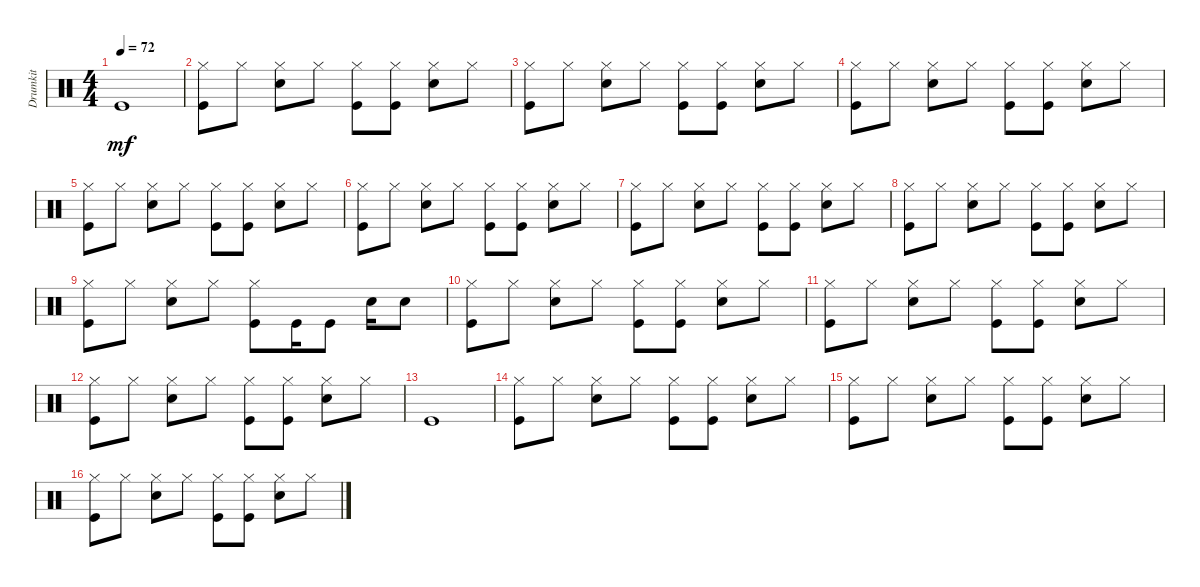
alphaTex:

\track ("Drumkit" "Drumkit") {instrument percussion}
\staff {score}
\articulation defaults
\ts (4 4)
\tempo 72
\clef neutral
\ks c "Kick (hit)".1{dy mf}
|
("Hi-Hat (closed)" "Kick (hit)").8 "Hi-Hat (closed)".8 ("Hi-Hat (closed)" "Snare (hit) 2").8 "Hi-Hat (closed)".8 ("Hi-Hat (closed)" "Kick (hit)").8 ("Hi-Hat (closed)" "Kick (hit)").8 ("Hi-Hat (closed)" "Snare (hit) 2").8 "Hi-Hat (closed)".8 |
("Hi-Hat (closed)" "Kick (hit)").8 "Hi-Hat (closed)".8 ("Hi-Hat (closed)" "Snare (hit) 2").8 "Hi-Hat (closed)".8 ("Hi-Hat (closed)" "Kick (hit)").8 ("Hi-Hat (closed)" "Kick (hit)").8 ("Hi-Hat (closed)" "Snare (hit) 2").8 "Hi-Hat (closed)".8 |
("Hi-Hat (closed)" "Kick (hit)").8 "Hi-Hat (closed)".8 ("Hi-Hat (closed)" "Snare (hit) 2").8 "Hi-Hat (closed)".8 ("Hi-Hat (closed)" "Kick (hit)").8 ("Hi-Hat (closed)" "Kick (hit)").8 ("Hi-Hat (closed)" "Snare (hit) 2").8 "Hi-Hat (closed)".8 |
("Hi-Hat (closed)" "Kick (hit)").8 "Hi-Hat (closed)".8 ("Hi-Hat (closed)" "Snare (hit) 2").8 "Hi-Hat (closed)".8 ("Hi-Hat (closed)" "Kick (hit)").8 ("Hi-Hat (closed)" "Kick (hit)").8 ("Hi-Hat (closed)" "Snare (hit) 2").8 "Hi-Hat (closed)".8 |
("Hi-Hat (closed)" "Kick (hit)").8 "Hi-Hat (closed)".8 ("Hi-Hat (closed)" "Snare (hit) 2").8 "Hi-Hat (closed)".8 ("Hi-Hat (closed)" "Kick (hit)").8 ("Hi-Hat (closed)" "Kick (hit)").8 ("Hi-Hat (closed)" "Snare (hit) 2").8 "Hi-Hat (closed)".8 |
("Hi-Hat (closed)" "Kick (hit)").8 "Hi-Hat (closed)".8 ("Hi-Hat (closed)" "Snare (hit) 2").8 "Hi-Hat (closed)".8 ("Hi-Hat (closed)" "Kick (hit)").8 ("Hi-Hat (closed)" "Kick (hit)").8 ("Hi-Hat (closed)" "Snare (hit) 2").8 "Hi-Hat (closed)".8 |
("Hi-Hat (closed)" "Kick (hit)").8 "Hi-Hat (closed)".8 ("Hi-Hat (closed)" "Snare (hit) 2").8 "Hi-Hat (closed)".8 ("Hi-Hat (closed)" "Kick (hit)").8 ("Hi-Hat (closed)" "Kick (hit)").8 ("Hi-Hat (closed)" "Snare (hit) 2").8 "Hi-Hat (closed)".8 |
("Hi-Hat (closed)" "Kick (hit)").8 "Hi-Hat (closed)".8 ("Hi-Hat (closed)" "Snare (hit) 2").8 "Hi-Hat (closed)".8 ("Hi-Hat (closed)" "Kick (hit)").8 "Kick (hit)".16 "Kick (hit)".8 "Snare (hit) 2".16 "Snare (hit) 2".8 |
("Hi-Hat (closed)" "Kick (hit)").8 "Hi-Hat (closed)".8 ("Hi-Hat (closed)" "Snare (hit) 2").8 "Hi-Hat (closed)".8 ("Hi-Hat (closed)" "Kick (hit)").8 ("Hi-Hat (closed)" "Kick (hit)").8 ("Hi-Hat (closed)" "Snare (hit) 2").8 "Hi-Hat (closed)".8 |
("Hi-Hat (closed)" "Kick (hit)").8 "Hi-Hat (closed)".8 ("Hi-Hat (closed)" "Snare (hit) 2").8 "Hi-Hat (closed)".8 ("Hi-Hat (closed)" "Kick (hit)").8 ("Hi-Hat (closed)" "Kick (hit)").8 ("Hi-Hat (closed)" "Snare (hit) 2").8 "Hi-Hat (closed)".8 |
("Hi-Hat (closed)" "Kick (hit)").8 "Hi-Hat (closed)".8 ("Hi-Hat (closed)" "Snare (hit) 2").8 "Hi-Hat (closed)".8 ("Hi-Hat (closed)" "Kick (hit)").8 ("Hi-Hat (closed)" "Kick (hit)").8 ("Hi-Hat (closed)" "Snare (hit) 2").8 "Hi-Hat (closed)".8 |
"Kick (hit)".1 |
("Hi-Hat (closed)" "Kick (hit)").8 "Hi-Hat (closed)".8 ("Hi-Hat (closed)" "Snare (hit) 2").8 "Hi-Hat (closed)".8 ("Hi-Hat (closed)" "Kick (hit)").8 ("Hi-Hat (closed)" "Kick (hit)").8 ("Hi-Hat (closed)" "Snare (hit) 2").8 "Hi-Hat (closed)".8 |
("Hi-Hat (closed)" "Kick (hit)").8 "Hi-Hat (closed)".8 ("Hi-Hat (closed)" "Snare (hit) 2").8 "Hi-Hat (closed)".8 ("Hi-Hat (closed)" "Kick (hit)").8 ("Hi-Hat (closed)" "Kick (hit)").8 ("Hi-Hat (closed)" "Snare (hit) 2").8 "Hi-Hat (closed)".8 |
("Hi-Hat (closed)" "Kick (hit)").8 "Hi-Hat (closed)".8 ("Hi-Hat (closed)" "Snare (hit) 2").8 "Hi-Hat (closed)".8 ("Hi-Hat (closed)" "Kick (hit)").8 ("Hi-Hat (closed)" "Kick (hit)").8 ("Hi-Hat (closed)" "Snare (hit) 2").8 "Hi-Hat (closed)".8
